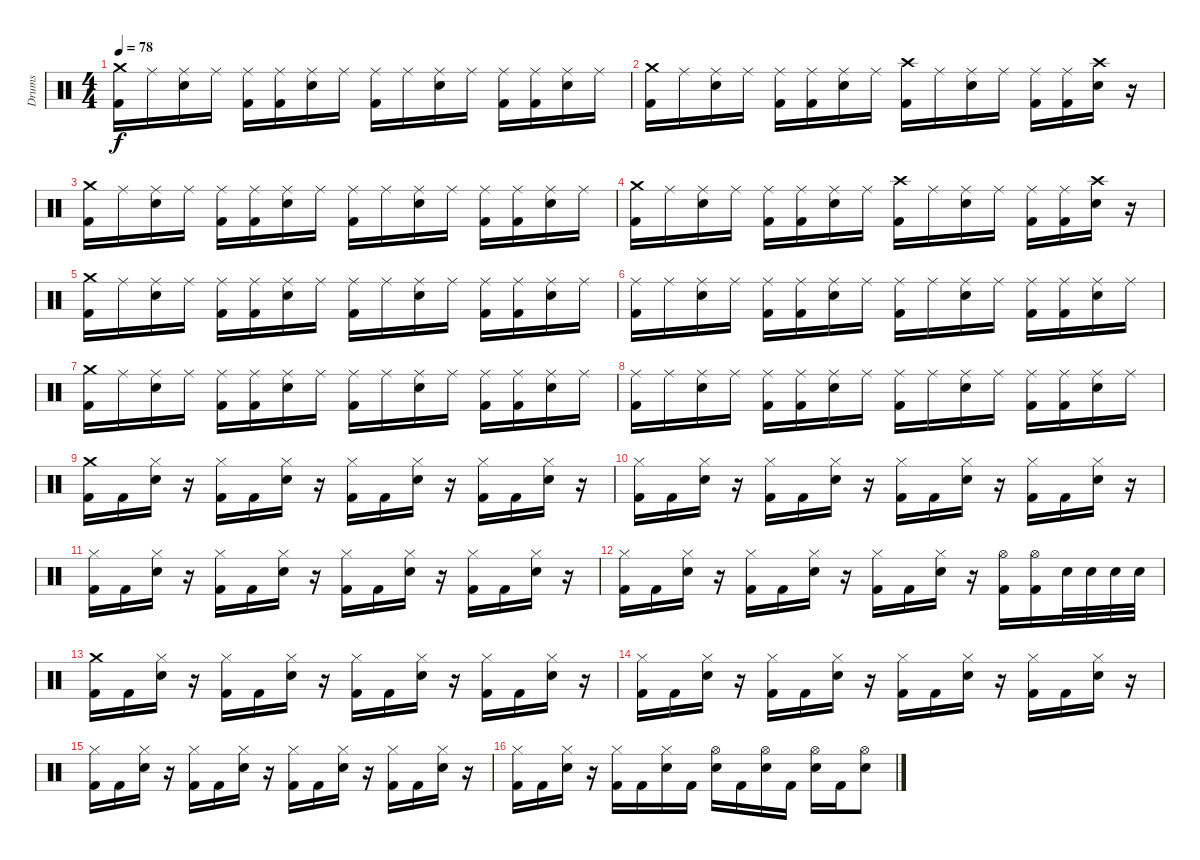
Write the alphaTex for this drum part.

\track ("Drums" "Drums") {instrument percussion}
\staff {score}
\articulation defaults
\ts (4 4)
\tempo 78
\clef neutral
\ks c
("Crash medium (hit)" "Kick (hit) 2").16{dy f} "Ride (middle)".16 ("Ride (middle)" "Snare (hit) 2").16 "Ride (middle)".16 ("Ride (middle)" "Kick (hit) 2").16 ("Ride (middle)" "Kick (hit) 2").16 ("Ride (middle)" "Snare (hit) 2").16 "Ride (middle)".16 ("Ride (middle)" "Kick (hit) 2").16 "Ride (middle)".16 ("Ride (middle)" "Snare (hit) 2").16 "Ride (middle)".16 ("Ride (middle)" "Kick (hit) 2").16 ("Ride (middle)" "Kick (hit) 2").16 ("Ride (middle)" "Snare (hit) 2").16 "Ride (middle)".16 |
("Crash medium (hit)" "Kick (hit) 2").16 "Ride (middle)".16 ("Ride (middle)" "Snare (hit) 2").16 "Ride (middle)".16 ("Ride (middle)" "Kick (hit) 2").16 ("Ride (middle)" "Kick (hit) 2").16 ("Ride (middle)" "Snare (hit) 2").16 "Ride (middle)".16 ("Crash high (hit)" "Kick (hit) 2").16 "Ride (middle)".16 ("Ride (middle)" "Snare (hit) 2").16 "Ride (middle)".16 ("Ride (middle)" "Kick (hit) 2").16 ("Ride (middle)" "Kick (hit) 2").16 ("Crash high (hit)" "Snare (hit) 2").16 r.16 |
("Crash medium (hit)" "Kick (hit) 2").16 "Ride (middle)".16 ("Ride (middle)" "Snare (hit) 2").16 "Ride (middle)".16 ("Ride (middle)" "Kick (hit) 2").16 ("Ride (middle)" "Kick (hit) 2").16 ("Ride (middle)" "Snare (hit) 2").16 "Ride (middle)".16 ("Ride (middle)" "Kick (hit) 2").16 "Ride (middle)".16 ("Ride (middle)" "Snare (hit) 2").16 "Ride (middle)".16 ("Ride (middle)" "Kick (hit) 2").16 ("Ride (middle)" "Kick (hit) 2").16 ("Ride (middle)" "Snare (hit) 2").16 "Ride (middle)".16 |
("Crash medium (hit)" "Kick (hit) 2").16 "Ride (middle)".16 ("Ride (middle)" "Snare (hit) 2").16 "Ride (middle)".16 ("Ride (middle)" "Kick (hit) 2").16 ("Ride (middle)" "Kick (hit) 2").16 ("Ride (middle)" "Snare (hit) 2").16 "Ride (middle)".16 ("Crash high (hit)" "Kick (hit) 2").16 "Ride (middle)".16 ("Ride (middle)" "Snare (hit) 2").16 "Ride (middle)".16 ("Ride (middle)" "Kick (hit) 2").16 ("Ride (middle)" "Kick (hit) 2").16 ("Crash high (hit)" "Snare (hit) 2").16 r.16 |
("Crash medium (hit)" "Kick (hit) 2").16 "Ride (middle)".16 ("Ride (middle)" "Snare (hit) 2").16 "Ride (middle)".16 ("Ride (middle)" "Kick (hit) 2").16 ("Ride (middle)" "Kick (hit) 2").16 ("Ride (middle)" "Snare (hit) 2").16 "Ride (middle)".16 ("Ride (middle)" "Kick (hit) 2").16 "Ride (middle)".16 ("Ride (middle)" "Snare (hit) 2").16 "Ride (middle)".16 ("Ride (middle)" "Kick (hit) 2").16 ("Ride (middle)" "Kick (hit) 2").16 ("Ride (middle)" "Snare (hit) 2").16 "Ride (middle)".16 |
("Ride (middle)" "Kick (hit) 2").16 "Ride (middle)".16 ("Ride (middle)" "Snare (hit) 2").16 "Ride (middle)".16 ("Ride (middle)" "Kick (hit) 2").16 ("Ride (middle)" "Kick (hit) 2").16 ("Ride (middle)" "Snare (hit) 2").16 "Ride (middle)".16 ("Ride (middle)" "Kick (hit) 2").16 "Ride (middle)".16 ("Ride (middle)" "Snare (hit) 2").16 "Ride (middle)".16 ("Ride (middle)" "Kick (hit) 2").16 ("Ride (middle)" "Kick (hit) 2").16 ("Ride (middle)" "Snare (hit) 2").16 "Ride (middle)".16 |
("Crash medium (hit)" "Kick (hit) 2").16 "Ride (middle)".16 ("Ride (middle)" "Snare (hit) 2").16 "Ride (middle)".16 ("Ride (middle)" "Kick (hit) 2").16 ("Ride (middle)" "Kick (hit) 2").16 ("Ride (middle)" "Snare (hit) 2").16 "Ride (middle)".16 ("Ride (middle)" "Kick (hit) 2").16 "Ride (middle)".16 ("Ride (middle)" "Snare (hit) 2").16 "Ride (middle)".16 ("Ride (middle)" "Kick (hit) 2").16 ("Ride (middle)" "Kick (hit) 2").16 ("Ride (middle)" "Snare (hit) 2").16 "Ride (middle)".16 |
("Ride (middle)" "Kick (hit) 2").16 "Ride (middle)".16 ("Ride (middle)" "Snare (hit) 2").16 "Ride (middle)".16 ("Ride (middle)" "Kick (hit) 2").16 ("Ride (middle)" "Kick (hit) 2").16 ("Ride (middle)" "Snare (hit) 2").16 "Ride (middle)".16 ("Ride (middle)" "Kick (hit) 2").16 "Ride (middle)".16 ("Ride (middle)" "Snare (hit) 2").16 "Ride (middle)".16 ("Ride (middle)" "Kick (hit) 2").16 ("Ride (middle)" "Kick (hit) 2").16 ("Ride (middle)" "Snare (hit) 2").16 "Ride (middle)".16 |
("Crash medium (hit)" "Kick (hit) 2").16 "Kick (hit) 2".16 ("Hi-Hat (closed)" "Snare (hit) 2").16 r.16 ("Hi-Hat (closed)" "Kick (hit) 2").16 "Kick (hit) 2".16 ("Hi-Hat (closed)" "Snare (hit) 2").16 r.16 ("Hi-Hat (closed)" "Kick (hit) 2").16 "Kick (hit) 2".16 ("Hi-Hat (closed)" "Snare (hit) 2").16 r.16 ("Hi-Hat (closed)" "Kick (hit) 2").16 "Kick (hit) 2".16 ("Hi-Hat (closed)" "Snare (hit) 2").16 r.16 |
("Hi-Hat (closed)" "Kick (hit) 2").16 "Kick (hit) 2".16 ("Hi-Hat (closed)" "Snare (hit) 2").16 r.16 ("Hi-Hat (closed)" "Kick (hit) 2").16 "Kick (hit) 2".16 ("Hi-Hat (closed)" "Snare (hit) 2").16 r.16 ("Hi-Hat (closed)" "Kick (hit) 2").16 "Kick (hit) 2".16 ("Hi-Hat (closed)" "Snare (hit) 2").16 r.16 ("Hi-Hat (closed)" "Kick (hit) 2").16 "Kick (hit) 2".16 ("Hi-Hat (closed)" "Snare (hit) 2").16 r.16 |
("Hi-Hat (closed)" "Kick (hit) 2").16 "Kick (hit) 2".16 ("Hi-Hat (closed)" "Snare (hit) 2").16 r.16 ("Hi-Hat (closed)" "Kick (hit) 2").16 "Kick (hit) 2".16 ("Hi-Hat (closed)" "Snare (hit) 2").16 r.16 ("Hi-Hat (closed)" "Kick (hit) 2").16 "Kick (hit) 2".16 ("Hi-Hat (closed)" "Snare (hit) 2").16 r.16 ("Hi-Hat (closed)" "Kick (hit) 2").16 "Kick (hit) 2".16 ("Hi-Hat (closed)" "Snare (hit) 2").16 r.16 |
("Hi-Hat (closed)" "Kick (hit) 2").16 "Kick (hit) 2".16 ("Hi-Hat (closed)" "Snare (hit) 2").16 r.16 ("Hi-Hat (closed)" "Kick (hit) 2").16 "Kick (hit) 2".16 ("Hi-Hat (closed)" "Snare (hit) 2").16 r.16 ("Hi-Hat (closed)" "Kick (hit) 2").16 "Kick (hit) 2".16 ("Hi-Hat (closed)" "Snare (hit) 2").16 r.16 ("Hi-Hat (open)" "Kick (hit) 2").16 ("Hi-Hat (open)" "Kick (hit) 2").16 "Snare (hit) 2".32 "Snare (hit) 2".32 "Snare (hit) 2".32 "Snare (hit) 2".32 |
("Crash medium (hit)" "Kick (hit) 2").16 "Kick (hit) 2".16 ("Hi-Hat (closed)" "Snare (hit) 2").16 r.16 ("Hi-Hat (closed)" "Kick (hit) 2").16 "Kick (hit) 2".16 ("Hi-Hat (closed)" "Snare (hit) 2").16 r.16 ("Hi-Hat (closed)" "Kick (hit) 2").16 "Kick (hit) 2".16 ("Hi-Hat (closed)" "Snare (hit) 2").16 r.16 ("Hi-Hat (closed)" "Kick (hit) 2").16 "Kick (hit) 2".16 ("Hi-Hat (closed)" "Snare (hit) 2").16 r.16 |
("Hi-Hat (closed)" "Kick (hit) 2").16 "Kick (hit) 2".16 ("Hi-Hat (closed)" "Snare (hit) 2").16 r.16 ("Hi-Hat (closed)" "Kick (hit) 2").16 "Kick (hit) 2".16 ("Hi-Hat (closed)" "Snare (hit) 2").16 r.16 ("Hi-Hat (closed)" "Kick (hit) 2").16 "Kick (hit) 2".16 ("Hi-Hat (closed)" "Snare (hit) 2").16 r.16 ("Hi-Hat (closed)" "Kick (hit) 2").16 "Kick (hit) 2".16 ("Hi-Hat (closed)" "Snare (hit) 2").16 r.16 |
("Hi-Hat (closed)" "Kick (hit) 2").16 "Kick (hit) 2".16 ("Hi-Hat (closed)" "Snare (hit) 2").16 r.16 ("Hi-Hat (closed)" "Kick (hit) 2").16 "Kick (hit) 2".16 ("Hi-Hat (closed)" "Snare (hit) 2").16 r.16 ("Hi-Hat (closed)" "Kick (hit) 2").16 "Kick (hit) 2".16 ("Hi-Hat (closed)" "Snare (hit) 2").16 r.16 ("Hi-Hat (closed)" "Kick (hit) 2").16 "Kick (hit) 2".16 ("Hi-Hat (closed)" "Snare (hit) 2").16 r.16 |
("Hi-Hat (closed)" "Kick (hit) 2").16 "Kick (hit) 2".16 ("Hi-Hat (closed)" "Snare (hit) 2").16 r.16 ("Hi-Hat (closed)" "Kick (hit) 2").16 "Kick (hit) 2".16 ("Hi-Hat (closed)" "Snare (hit) 2").16 "Kick (hit) 2".16 ("Hi-Hat (open)" "Snare (hit) 2").16 "Kick (hit) 2".16 ("Hi-Hat (open)" "Snare (hit) 2").16 "Kick (hit) 2".16 ("Hi-Hat (open)" "Snare (hit) 2").16 "Kick (hit) 2".16 ("Hi-Hat (open)" "Snare (hit) 2").8
